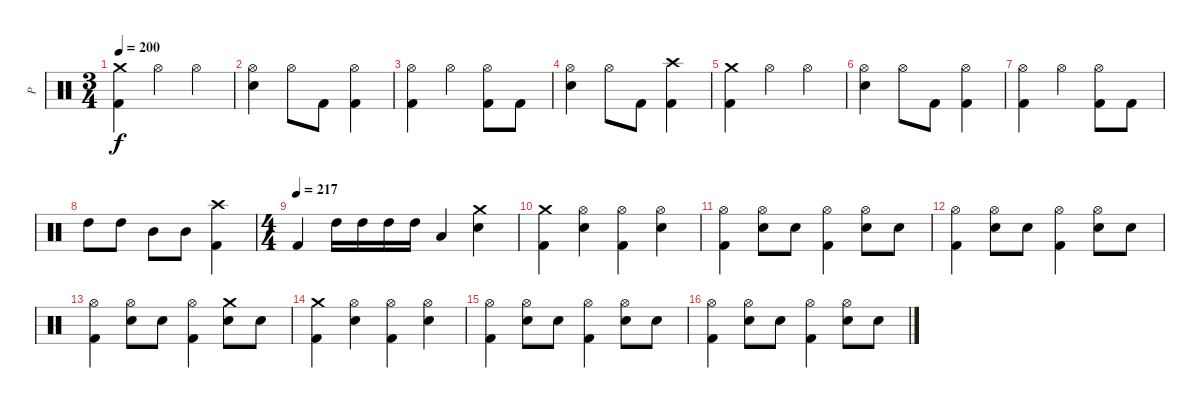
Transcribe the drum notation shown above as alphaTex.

\track ("P" "P") {instrument percussion}
\staff {score}
\articulation defaults
\ts (3 4)
\tempo 200
\clef neutral
\ks c
("Crash medium (hit)" "Kick (hit) 2").4{dy f} "Hi-Hat (open)".4 "Hi-Hat (open)".4 |
("Hi-Hat (open)" "Electric Snare (hit)").4 "Hi-Hat (open)".8 "Kick (hit) 2".8 ("Hi-Hat (open)" "Kick (hit) 2").4 |
("Hi-Hat (open)" "Kick (hit) 2").4 "Hi-Hat (open)".4 ("Hi-Hat (open)" "Kick (hit) 2").8 "Kick (hit) 2".8 |
("Hi-Hat (open)" "Electric Snare (hit)").4 "Hi-Hat (open)".8 "Kick (hit) 2".8 ("Crash high (hit)" "Kick (hit) 2").4 |
("Crash medium (hit)" "Kick (hit) 2").4 "Hi-Hat (open)".4 "Hi-Hat (open)".4 |
("Hi-Hat (open)" "Electric Snare (hit)").4 "Hi-Hat (open)".8 "Kick (hit) 2".8 ("Hi-Hat (open)" "Kick (hit) 2").4 |
("Hi-Hat (open)" "Kick (hit) 2").4 "Hi-Hat (open)".4 ("Hi-Hat (open)" "Kick (hit) 2").8 "Kick (hit) 2".8 |
"High Tom (hit)".8 "High Tom (hit)".8 "Mid Tom (hit)".8 "Mid Tom (hit)".8 ("Crash high (hit)" "Kick (hit) 2").4 |
\ts (4 4)
\tempo (217)
"Kick (hit) 2".4 "High Tom (hit)".16 "High Tom (hit)".16 "High Tom (hit)".16 "High Tom (hit)".16 "Low Tom (hit)".4 ("Crash medium (hit)" "Electric Snare (hit)").4 |
("Crash medium (hit)" "Kick (hit) 2").4 ("Hi-Hat (open)" "Electric Snare (hit)").4 ("Hi-Hat (open)" "Kick (hit) 2").4 ("Hi-Hat (open)" "Electric Snare (hit)").4 |
("Hi-Hat (open)" "Kick (hit) 2").4 ("Hi-Hat (open)" "Electric Snare (hit)").8 "Electric Snare (hit)".8 ("Hi-Hat (open)" "Kick (hit) 2").4 ("Hi-Hat (open)" "Electric Snare (hit)").8 "Electric Snare (hit)".8 |
("Hi-Hat (open)" "Kick (hit) 2").4 ("Hi-Hat (open)" "Electric Snare (hit)").8 "Electric Snare (hit)".8 ("Hi-Hat (open)" "Kick (hit) 2").4 ("Hi-Hat (open)" "Electric Snare (hit)").8 "Electric Snare (hit)".8 |
("Hi-Hat (open)" "Kick (hit) 2").4 ("Hi-Hat (open)" "Electric Snare (hit)").8 "Electric Snare (hit)".8 ("Hi-Hat (open)" "Kick (hit) 2").4 ("Crash medium (hit)" "Electric Snare (hit)").8 "Electric Snare (hit)".8 |
("Crash medium (hit)" "Kick (hit) 2").4 ("Hi-Hat (open)" "Electric Snare (hit)").4 ("Hi-Hat (open)" "Kick (hit) 2").4 ("Hi-Hat (open)" "Electric Snare (hit)").4 |
("Hi-Hat (open)" "Kick (hit) 2").4 ("Hi-Hat (open)" "Electric Snare (hit)").8 "Electric Snare (hit)".8 ("Hi-Hat (open)" "Kick (hit) 2").4 ("Hi-Hat (open)" "Electric Snare (hit)").8 "Electric Snare (hit)".8 |
("Hi-Hat (open)" "Kick (hit) 2").4 ("Hi-Hat (open)" "Electric Snare (hit)").8 "Electric Snare (hit)".8 ("Hi-Hat (open)" "Kick (hit) 2").4 ("Hi-Hat (open)" "Electric Snare (hit)").8 "Electric Snare (hit)".8
